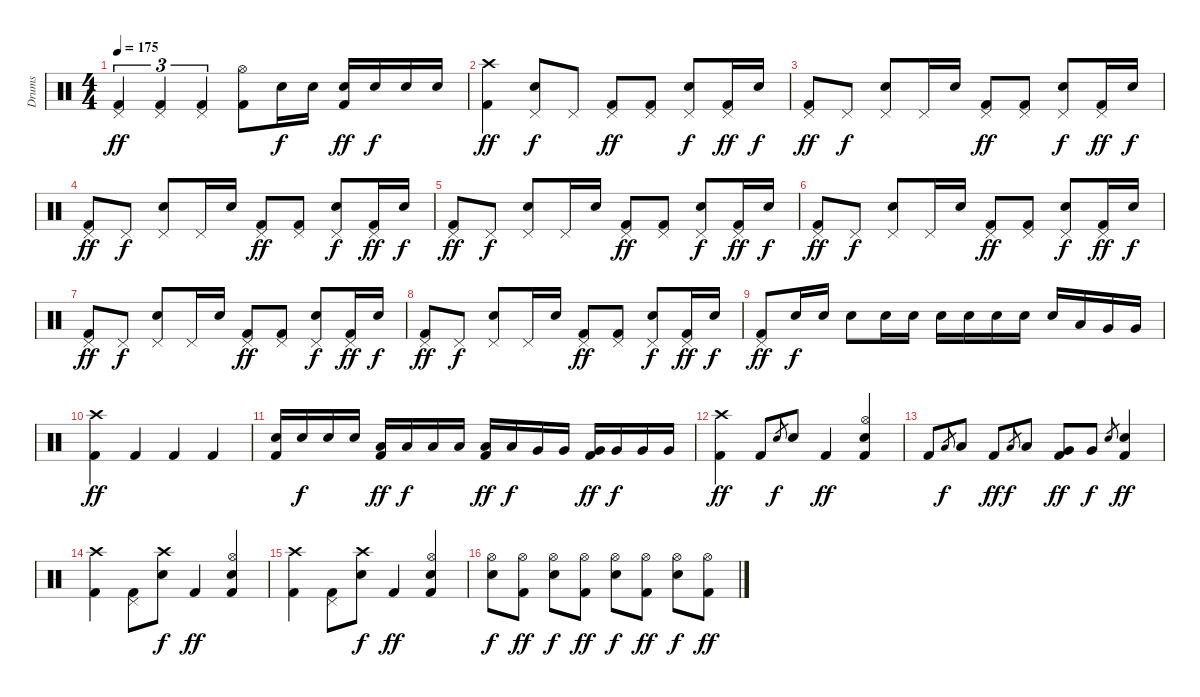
\track ("Drums" "Drums") {instrument percussion}
\staff {score}
\articulation defaults
\ts (4 4)
\tempo 175
\clef neutral
\ks c
("Pedal Hi-Hat (hit)" "Kick (hit) 2").4{tu (3 2) dy ff} ("Pedal Hi-Hat (hit)" "Kick (hit) 2").4{tu (3 2)} ("Pedal Hi-Hat (hit)" "Kick (hit) 2").4{tu (3 2)} ("Hi-Hat (open)" "Kick (hit) 2").8 "Electric Snare (hit)".16{dy f} "Electric Snare (hit)".16 ("Electric Snare (hit)" "Kick (hit) 2").16{dy ff} "Electric Snare (hit)".16{dy f} "Electric Snare (hit)".16 "Electric Snare (hit)".16 |
("Crash high (hit)" "Kick (hit) 2").4{dy ff} ("Pedal Hi-Hat (hit)" "Electric Snare (hit)").8{dy f} "Pedal Hi-Hat (hit)".8 ("Pedal Hi-Hat (hit)" "Kick (hit) 2").8{dy ff} ("Pedal Hi-Hat (hit)" "Kick (hit) 2").8 ("Pedal Hi-Hat (hit)" "Electric Snare (hit)").8{dy f} ("Pedal Hi-Hat (hit)" "Kick (hit) 2").16{dy ff} "Electric Snare (hit)".16{dy f} |
("Pedal Hi-Hat (hit)" "Kick (hit) 2").8{dy ff} "Pedal Hi-Hat (hit)".8{dy f} ("Pedal Hi-Hat (hit)" "Electric Snare (hit)").8 "Pedal Hi-Hat (hit)".16 "Electric Snare (hit)".16 ("Pedal Hi-Hat (hit)" "Kick (hit) 2").8{dy ff} ("Pedal Hi-Hat (hit)" "Kick (hit) 2").8 ("Pedal Hi-Hat (hit)" "Electric Snare (hit)").8{dy f} ("Pedal Hi-Hat (hit)" "Kick (hit) 2").16{dy ff} "Electric Snare (hit)".16{dy f} |
("Pedal Hi-Hat (hit)" "Kick (hit) 2").8{dy ff} "Pedal Hi-Hat (hit)".8{dy f} ("Pedal Hi-Hat (hit)" "Electric Snare (hit)").8 "Pedal Hi-Hat (hit)".16 "Electric Snare (hit)".16 ("Pedal Hi-Hat (hit)" "Kick (hit) 2").8{dy ff} ("Pedal Hi-Hat (hit)" "Kick (hit) 2").8 ("Pedal Hi-Hat (hit)" "Electric Snare (hit)").8{dy f} ("Pedal Hi-Hat (hit)" "Kick (hit) 2").16{dy ff} "Electric Snare (hit)".16{dy f} |
("Pedal Hi-Hat (hit)" "Kick (hit) 2").8{dy ff} "Pedal Hi-Hat (hit)".8{dy f} ("Pedal Hi-Hat (hit)" "Electric Snare (hit)").8 "Pedal Hi-Hat (hit)".16 "Electric Snare (hit)".16 ("Pedal Hi-Hat (hit)" "Kick (hit) 2").8{dy ff} ("Pedal Hi-Hat (hit)" "Kick (hit) 2").8 ("Pedal Hi-Hat (hit)" "Electric Snare (hit)").8{dy f} ("Pedal Hi-Hat (hit)" "Kick (hit) 2").16{dy ff} "Electric Snare (hit)".16{dy f} |
("Pedal Hi-Hat (hit)" "Kick (hit) 2").8{dy ff} "Pedal Hi-Hat (hit)".8{dy f} ("Pedal Hi-Hat (hit)" "Electric Snare (hit)").8 "Pedal Hi-Hat (hit)".16 "Electric Snare (hit)".16 ("Pedal Hi-Hat (hit)" "Kick (hit) 2").8{dy ff} ("Pedal Hi-Hat (hit)" "Kick (hit) 2").8 ("Pedal Hi-Hat (hit)" "Electric Snare (hit)").8{dy f} ("Pedal Hi-Hat (hit)" "Kick (hit) 2").16{dy ff} "Electric Snare (hit)".16{dy f} |
("Pedal Hi-Hat (hit)" "Kick (hit) 2").8{dy ff} "Pedal Hi-Hat (hit)".8{dy f} ("Pedal Hi-Hat (hit)" "Electric Snare (hit)").8 "Pedal Hi-Hat (hit)".16 "Electric Snare (hit)".16 ("Pedal Hi-Hat (hit)" "Kick (hit) 2").8{dy ff} ("Pedal Hi-Hat (hit)" "Kick (hit) 2").8 ("Pedal Hi-Hat (hit)" "Electric Snare (hit)").8{dy f} ("Pedal Hi-Hat (hit)" "Kick (hit) 2").16{dy ff} "Electric Snare (hit)".16{dy f} |
("Pedal Hi-Hat (hit)" "Kick (hit) 2").8{dy ff} "Pedal Hi-Hat (hit)".8{dy f} ("Pedal Hi-Hat (hit)" "Electric Snare (hit)").8 "Pedal Hi-Hat (hit)".16 "Electric Snare (hit)".16 ("Pedal Hi-Hat (hit)" "Kick (hit) 2").8{dy ff} ("Pedal Hi-Hat (hit)" "Kick (hit) 2").8 ("Pedal Hi-Hat (hit)" "Electric Snare (hit)").8{dy f} ("Pedal Hi-Hat (hit)" "Kick (hit) 2").16{dy ff} "Electric Snare (hit)".16{dy f} |
("Pedal Hi-Hat (hit)" "Kick (hit) 2").8{dy ff} "Electric Snare (hit)".16{dy f} "Electric Snare (hit)".16 "Electric Snare (hit)".8 "Electric Snare (hit)".16 "Electric Snare (hit)".16 "Electric Snare (hit)".16 "Electric Snare (hit)".16 "Electric Snare (hit)".16 "Electric Snare (hit)".16 "Electric Snare (hit)".16 "Low Tom (hit)".16 "Very Low Tom (hit)".16 "Very Low Tom (hit)".16 |
("Crash high (hit)" "Kick (hit) 2").4{dy ff} "Kick (hit) 2".4 "Kick (hit) 2".4 "Kick (hit) 2".4 |
("Electric Snare (hit)" "Kick (hit) 2").16 "Electric Snare (hit)".16{dy f} "Electric Snare (hit)".16 "Electric Snare (hit)".16 ("Low Tom (hit)" "Kick (hit) 2").16{dy ff} "Low Tom (hit)".16{dy f} "Low Tom (hit)".16 "Low Tom (hit)".16 ("Low Tom (hit)" "Kick (hit) 2").16{dy ff} "Low Tom (hit)".16{dy f} "Very Low Tom (hit)".16 "Very Low Tom (hit)".16 ("Very Low Tom (hit)" "Kick (hit) 2").16{dy ff} "Very Low Tom (hit)".16{dy f} "Very Low Tom (hit)".16 "Very Low Tom (hit)".16 |
("Crash high (hit)" "Kick (hit) 2").4{dy ff} "Kick (hit) 2".8 "Electric Snare (hit)".8{gr dy f} "Electric Snare (hit)".8 "Kick (hit) 2".4{dy ff} ("Hi-Hat (open)" "Electric Snare (hit)" "Kick (hit) 2").4 |
"Kick (hit) 2".8 "Low Tom (hit)".8{gr dy f} "Low Tom (hit)".8 "Kick (hit) 2".8{dy ff} "Low Tom (hit)".8{gr dy f} "Low Tom (hit)".8 ("Very Low Tom (hit)" "Kick (hit) 2").8{dy ff} "Very Low Tom (hit)".8{dy f} "Electric Snare (hit)".8{gr} ("Electric Snare (hit)" "Kick (hit) 2").4{dy ff} |
("Crash high (hit)" "Kick (hit) 2").4 ("Pedal Hi-Hat (hit)" "Kick (hit) 2").8 ("Crash high (hit)" "Electric Snare (hit)").8{dy f} "Kick (hit) 2".4{dy ff} ("Hi-Hat (open)" "Electric Snare (hit)" "Kick (hit) 2").4 |
("Crash high (hit)" "Kick (hit) 2").4 ("Pedal Hi-Hat (hit)" "Kick (hit) 2").8 ("Crash high (hit)" "Electric Snare (hit)").8{dy f} "Kick (hit) 2".4{dy ff} ("Hi-Hat (open)" "Electric Snare (hit)" "Kick (hit) 2").4 |
("Hi-Hat (open)" "Electric Snare (hit)").8{dy f} ("Hi-Hat (open)" "Kick (hit) 2").8{dy ff} ("Hi-Hat (open)" "Electric Snare (hit)").8{dy f} ("Hi-Hat (open)" "Kick (hit) 2").8{dy ff} ("Hi-Hat (open)" "Electric Snare (hit)").8{dy f} ("Hi-Hat (open)" "Kick (hit) 2").8{dy ff} ("Hi-Hat (open)" "Electric Snare (hit)").8{dy f} ("Hi-Hat (open)" "Kick (hit) 2").8{dy ff}
